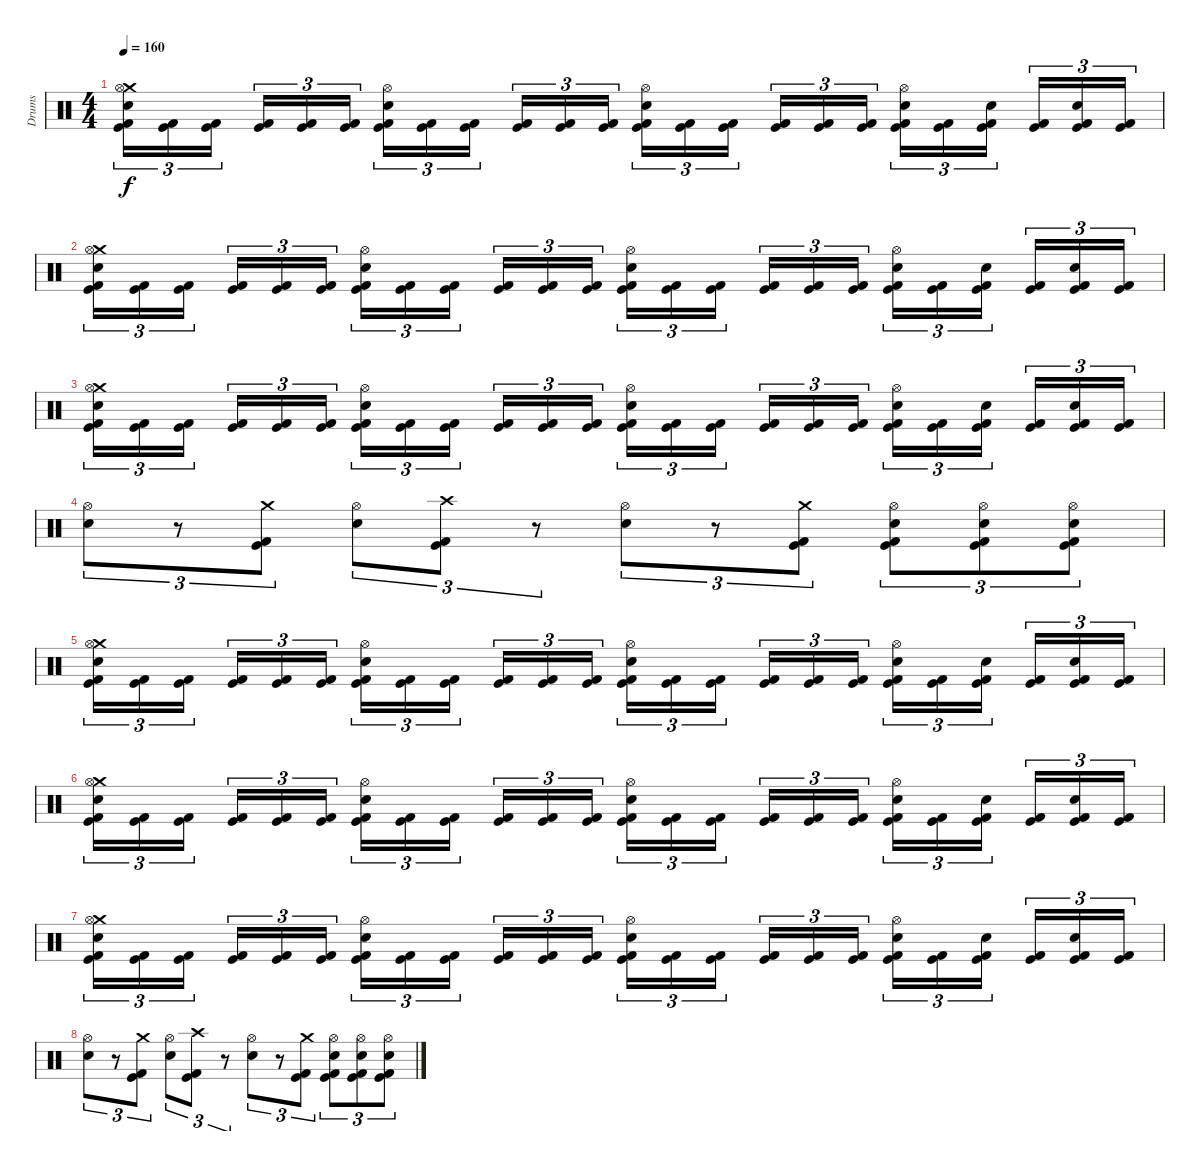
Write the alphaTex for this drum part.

\track ("Drums" "Drums") {instrument percussion}
\staff {score}
\articulation defaults
\ts (4 4)
\tempo 160
\clef neutral
\ks c
("Crash medium (hit)" "Hi-Hat (open)" "Electric Snare (hit)" "Kick (hit)" "Kick (hit) 2").16{tu (3 2) dy f} ("Kick (hit)" "Kick (hit) 2").16{tu (3 2)} ("Kick (hit)" "Kick (hit) 2").16{tu (3 2)} ("Kick (hit)" "Kick (hit) 2").16{tu (3 2)} ("Kick (hit)" "Kick (hit) 2").16{tu (3 2)} ("Kick (hit)" "Kick (hit) 2").16{tu (3 2)} ("Hi-Hat (open)" "Electric Snare (hit)" "Kick (hit)" "Kick (hit) 2").16{tu (3 2)} ("Kick (hit)" "Kick (hit) 2").16{tu (3 2)} ("Kick (hit)" "Kick (hit) 2").16{tu (3 2)} ("Kick (hit)" "Kick (hit) 2").16{tu (3 2)} ("Kick (hit)" "Kick (hit) 2").16{tu (3 2)} ("Kick (hit)" "Kick (hit) 2").16{tu (3 2)} ("Hi-Hat (open)" "Electric Snare (hit)" "Kick (hit)" "Kick (hit) 2").16{tu (3 2)} ("Kick (hit)" "Kick (hit) 2").16{tu (3 2)} ("Kick (hit)" "Kick (hit) 2").16{tu (3 2)} ("Kick (hit)" "Kick (hit) 2").16{tu (3 2)} ("Kick (hit)" "Kick (hit) 2").16{tu (3 2)} ("Kick (hit)" "Kick (hit) 2").16{tu (3 2)} ("Hi-Hat (open)" "Electric Snare (hit)" "Kick (hit)" "Kick (hit) 2").16{tu (3 2)} ("Kick (hit)" "Kick (hit) 2").16{tu (3 2)} ("Electric Snare (hit)" "Kick (hit)" "Kick (hit) 2").16{tu (3 2)} ("Kick (hit)" "Kick (hit) 2").16{tu (3 2)} ("Electric Snare (hit)" "Kick (hit)" "Kick (hit) 2").16{tu (3 2)} ("Kick (hit)" "Kick (hit) 2").16{tu (3 2)} |
("Crash medium (hit)" "Hi-Hat (open)" "Electric Snare (hit)" "Kick (hit)" "Kick (hit) 2").16{tu (3 2)} ("Kick (hit)" "Kick (hit) 2").16{tu (3 2)} ("Kick (hit)" "Kick (hit) 2").16{tu (3 2)} ("Kick (hit)" "Kick (hit) 2").16{tu (3 2)} ("Kick (hit)" "Kick (hit) 2").16{tu (3 2)} ("Kick (hit)" "Kick (hit) 2").16{tu (3 2)} ("Hi-Hat (open)" "Electric Snare (hit)" "Kick (hit)" "Kick (hit) 2").16{tu (3 2)} ("Kick (hit)" "Kick (hit) 2").16{tu (3 2)} ("Kick (hit)" "Kick (hit) 2").16{tu (3 2)} ("Kick (hit)" "Kick (hit) 2").16{tu (3 2)} ("Kick (hit)" "Kick (hit) 2").16{tu (3 2)} ("Kick (hit)" "Kick (hit) 2").16{tu (3 2)} ("Hi-Hat (open)" "Electric Snare (hit)" "Kick (hit)" "Kick (hit) 2").16{tu (3 2)} ("Kick (hit)" "Kick (hit) 2").16{tu (3 2)} ("Kick (hit)" "Kick (hit) 2").16{tu (3 2)} ("Kick (hit)" "Kick (hit) 2").16{tu (3 2)} ("Kick (hit)" "Kick (hit) 2").16{tu (3 2)} ("Kick (hit)" "Kick (hit) 2").16{tu (3 2)} ("Hi-Hat (open)" "Electric Snare (hit)" "Kick (hit)" "Kick (hit) 2").16{tu (3 2)} ("Kick (hit)" "Kick (hit) 2").16{tu (3 2)} ("Electric Snare (hit)" "Kick (hit)" "Kick (hit) 2").16{tu (3 2)} ("Kick (hit)" "Kick (hit) 2").16{tu (3 2)} ("Electric Snare (hit)" "Kick (hit)" "Kick (hit) 2").16{tu (3 2)} ("Kick (hit)" "Kick (hit) 2").16{tu (3 2)} |
("Crash medium (hit)" "Hi-Hat (open)" "Electric Snare (hit)" "Kick (hit)" "Kick (hit) 2").16{tu (3 2)} ("Kick (hit)" "Kick (hit) 2").16{tu (3 2)} ("Kick (hit)" "Kick (hit) 2").16{tu (3 2)} ("Kick (hit)" "Kick (hit) 2").16{tu (3 2)} ("Kick (hit)" "Kick (hit) 2").16{tu (3 2)} ("Kick (hit)" "Kick (hit) 2").16{tu (3 2)} ("Hi-Hat (open)" "Electric Snare (hit)" "Kick (hit)" "Kick (hit) 2").16{tu (3 2)} ("Kick (hit)" "Kick (hit) 2").16{tu (3 2)} ("Kick (hit)" "Kick (hit) 2").16{tu (3 2)} ("Kick (hit)" "Kick (hit) 2").16{tu (3 2)} ("Kick (hit)" "Kick (hit) 2").16{tu (3 2)} ("Kick (hit)" "Kick (hit) 2").16{tu (3 2)} ("Hi-Hat (open)" "Electric Snare (hit)" "Kick (hit)" "Kick (hit) 2").16{tu (3 2)} ("Kick (hit)" "Kick (hit) 2").16{tu (3 2)} ("Kick (hit)" "Kick (hit) 2").16{tu (3 2)} ("Kick (hit)" "Kick (hit) 2").16{tu (3 2)} ("Kick (hit)" "Kick (hit) 2").16{tu (3 2)} ("Kick (hit)" "Kick (hit) 2").16{tu (3 2)} ("Hi-Hat (open)" "Electric Snare (hit)" "Kick (hit)" "Kick (hit) 2").16{tu (3 2)} ("Kick (hit)" "Kick (hit) 2").16{tu (3 2)} ("Electric Snare (hit)" "Kick (hit)" "Kick (hit) 2").16{tu (3 2)} ("Kick (hit)" "Kick (hit) 2").16{tu (3 2)} ("Electric Snare (hit)" "Kick (hit)" "Kick (hit) 2").16{tu (3 2)} ("Kick (hit)" "Kick (hit) 2").16{tu (3 2)} |
("Hi-Hat (open)" "Electric Snare (hit)").8{tu (3 2)} r.8{tu (3 2)} ("Crash medium (hit)" "Kick (hit)" "Kick (hit) 2").8{tu (3 2)} ("Hi-Hat (open)" "Electric Snare (hit)").8{tu (3 2)} ("Crash high (hit)" "Kick (hit)" "Kick (hit) 2").8{tu (3 2)} r.8{tu (3 2)} ("Hi-Hat (open)" "Electric Snare (hit)").8{tu (3 2)} r.8{tu (3 2)} ("Crash medium (hit)" "Kick (hit)" "Kick (hit) 2").8{tu (3 2)} ("Hi-Hat (open)" "Electric Snare (hit)" "Kick (hit)" "Kick (hit) 2").8{tu (3 2)} ("Hi-Hat (open)" "Electric Snare (hit)" "Kick (hit)" "Kick (hit) 2").8{tu (3 2)} ("Hi-Hat (open)" "Electric Snare (hit)" "Kick (hit)" "Kick (hit) 2").8{tu (3 2)} |
("Crash medium (hit)" "Hi-Hat (open)" "Electric Snare (hit)" "Kick (hit)" "Kick (hit) 2").16{tu (3 2)} ("Kick (hit)" "Kick (hit) 2").16{tu (3 2)} ("Kick (hit)" "Kick (hit) 2").16{tu (3 2)} ("Kick (hit)" "Kick (hit) 2").16{tu (3 2)} ("Kick (hit)" "Kick (hit) 2").16{tu (3 2)} ("Kick (hit)" "Kick (hit) 2").16{tu (3 2)} ("Hi-Hat (open)" "Electric Snare (hit)" "Kick (hit)" "Kick (hit) 2").16{tu (3 2)} ("Kick (hit)" "Kick (hit) 2").16{tu (3 2)} ("Kick (hit)" "Kick (hit) 2").16{tu (3 2)} ("Kick (hit)" "Kick (hit) 2").16{tu (3 2)} ("Kick (hit)" "Kick (hit) 2").16{tu (3 2)} ("Kick (hit)" "Kick (hit) 2").16{tu (3 2)} ("Hi-Hat (open)" "Electric Snare (hit)" "Kick (hit)" "Kick (hit) 2").16{tu (3 2)} ("Kick (hit)" "Kick (hit) 2").16{tu (3 2)} ("Kick (hit)" "Kick (hit) 2").16{tu (3 2)} ("Kick (hit)" "Kick (hit) 2").16{tu (3 2)} ("Kick (hit)" "Kick (hit) 2").16{tu (3 2)} ("Kick (hit)" "Kick (hit) 2").16{tu (3 2)} ("Hi-Hat (open)" "Electric Snare (hit)" "Kick (hit)" "Kick (hit) 2").16{tu (3 2)} ("Kick (hit)" "Kick (hit) 2").16{tu (3 2)} ("Electric Snare (hit)" "Kick (hit)" "Kick (hit) 2").16{tu (3 2)} ("Kick (hit)" "Kick (hit) 2").16{tu (3 2)} ("Electric Snare (hit)" "Kick (hit)" "Kick (hit) 2").16{tu (3 2)} ("Kick (hit)" "Kick (hit) 2").16{tu (3 2)} |
("Crash medium (hit)" "Hi-Hat (open)" "Electric Snare (hit)" "Kick (hit)" "Kick (hit) 2").16{tu (3 2)} ("Kick (hit)" "Kick (hit) 2").16{tu (3 2)} ("Kick (hit)" "Kick (hit) 2").16{tu (3 2)} ("Kick (hit)" "Kick (hit) 2").16{tu (3 2)} ("Kick (hit)" "Kick (hit) 2").16{tu (3 2)} ("Kick (hit)" "Kick (hit) 2").16{tu (3 2)} ("Hi-Hat (open)" "Electric Snare (hit)" "Kick (hit)" "Kick (hit) 2").16{tu (3 2)} ("Kick (hit)" "Kick (hit) 2").16{tu (3 2)} ("Kick (hit)" "Kick (hit) 2").16{tu (3 2)} ("Kick (hit)" "Kick (hit) 2").16{tu (3 2)} ("Kick (hit)" "Kick (hit) 2").16{tu (3 2)} ("Kick (hit)" "Kick (hit) 2").16{tu (3 2)} ("Hi-Hat (open)" "Electric Snare (hit)" "Kick (hit)" "Kick (hit) 2").16{tu (3 2)} ("Kick (hit)" "Kick (hit) 2").16{tu (3 2)} ("Kick (hit)" "Kick (hit) 2").16{tu (3 2)} ("Kick (hit)" "Kick (hit) 2").16{tu (3 2)} ("Kick (hit)" "Kick (hit) 2").16{tu (3 2)} ("Kick (hit)" "Kick (hit) 2").16{tu (3 2)} ("Hi-Hat (open)" "Electric Snare (hit)" "Kick (hit)" "Kick (hit) 2").16{tu (3 2)} ("Kick (hit)" "Kick (hit) 2").16{tu (3 2)} ("Electric Snare (hit)" "Kick (hit)" "Kick (hit) 2").16{tu (3 2)} ("Kick (hit)" "Kick (hit) 2").16{tu (3 2)} ("Electric Snare (hit)" "Kick (hit)" "Kick (hit) 2").16{tu (3 2)} ("Kick (hit)" "Kick (hit) 2").16{tu (3 2)} |
("Crash medium (hit)" "Hi-Hat (open)" "Electric Snare (hit)" "Kick (hit)" "Kick (hit) 2").16{tu (3 2)} ("Kick (hit)" "Kick (hit) 2").16{tu (3 2)} ("Kick (hit)" "Kick (hit) 2").16{tu (3 2)} ("Kick (hit)" "Kick (hit) 2").16{tu (3 2)} ("Kick (hit)" "Kick (hit) 2").16{tu (3 2)} ("Kick (hit)" "Kick (hit) 2").16{tu (3 2)} ("Hi-Hat (open)" "Electric Snare (hit)" "Kick (hit)" "Kick (hit) 2").16{tu (3 2)} ("Kick (hit)" "Kick (hit) 2").16{tu (3 2)} ("Kick (hit)" "Kick (hit) 2").16{tu (3 2)} ("Kick (hit)" "Kick (hit) 2").16{tu (3 2)} ("Kick (hit)" "Kick (hit) 2").16{tu (3 2)} ("Kick (hit)" "Kick (hit) 2").16{tu (3 2)} ("Hi-Hat (open)" "Electric Snare (hit)" "Kick (hit)" "Kick (hit) 2").16{tu (3 2)} ("Kick (hit)" "Kick (hit) 2").16{tu (3 2)} ("Kick (hit)" "Kick (hit) 2").16{tu (3 2)} ("Kick (hit)" "Kick (hit) 2").16{tu (3 2)} ("Kick (hit)" "Kick (hit) 2").16{tu (3 2)} ("Kick (hit)" "Kick (hit) 2").16{tu (3 2)} ("Hi-Hat (open)" "Electric Snare (hit)" "Kick (hit)" "Kick (hit) 2").16{tu (3 2)} ("Kick (hit)" "Kick (hit) 2").16{tu (3 2)} ("Electric Snare (hit)" "Kick (hit)" "Kick (hit) 2").16{tu (3 2)} ("Kick (hit)" "Kick (hit) 2").16{tu (3 2)} ("Electric Snare (hit)" "Kick (hit)" "Kick (hit) 2").16{tu (3 2)} ("Kick (hit)" "Kick (hit) 2").16{tu (3 2)} |
("Hi-Hat (open)" "Electric Snare (hit)").8{tu (3 2)} r.8{tu (3 2)} ("Crash medium (hit)" "Kick (hit)" "Kick (hit) 2").8{tu (3 2)} ("Hi-Hat (open)" "Electric Snare (hit)").8{tu (3 2)} ("Crash high (hit)" "Kick (hit)" "Kick (hit) 2").8{tu (3 2)} r.8{tu (3 2)} ("Hi-Hat (open)" "Electric Snare (hit)").8{tu (3 2)} r.8{tu (3 2)} ("Crash medium (hit)" "Kick (hit)" "Kick (hit) 2").8{tu (3 2)} ("Hi-Hat (open)" "Electric Snare (hit)" "Kick (hit)" "Kick (hit) 2").8{tu (3 2)} ("Hi-Hat (open)" "Electric Snare (hit)" "Kick (hit)" "Kick (hit) 2").8{tu (3 2)} ("Hi-Hat (open)" "Electric Snare (hit)" "Kick (hit)" "Kick (hit) 2").8{tu (3 2)}
